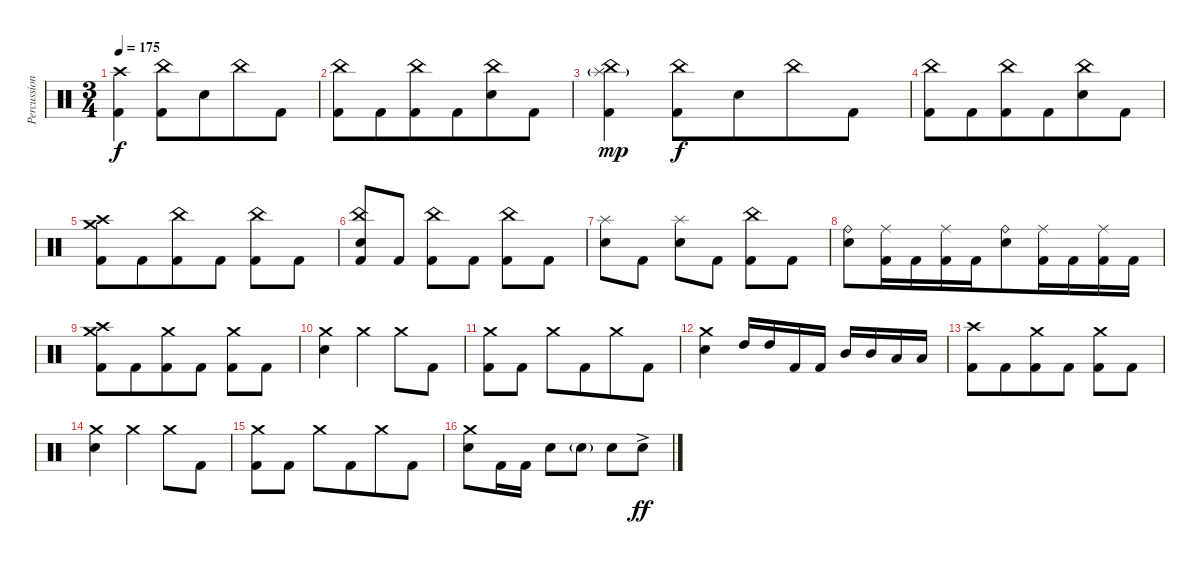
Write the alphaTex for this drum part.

\track ("Percussion" "Percussion") {instrument percussion bank 7}
\staff {score}
\articulation defaults
\ts (3 4)
\tempo 175
\clef neutral
\ks c
("Crash high (hit)" "Kick (hit) 2").4{dy f beam merge} ("China (hit)" "Kick (hit) 2").8 "Electric Snare (hit)".8{beam merge} "China (hit)".8{beam merge} "Kick (hit) 2".8 |
("China (hit)" "Kick (hit) 2").8 "Kick (hit) 2".8{beam merge} ("China (hit)" "Kick (hit) 2").8{beam merge} "Kick (hit) 2".8{beam merge} ("China (hit)" "Electric Snare (hit)").8{beam merge} "Kick (hit) 2".8 |
("China (hit)" "Splash (hit)"{g} "Kick (hit) 2").4{dy mp beam merge} ("China (hit)" "Kick (hit) 2").8{dy f} "Electric Snare (hit)".8{beam merge} "China (hit)".8{beam merge} "Kick (hit) 2".8 |
("China (hit)" "Kick (hit) 2").8 "Kick (hit) 2".8{beam merge} ("China (hit)" "Kick (hit) 2").8{beam merge} "Kick (hit) 2".8{beam merge} ("China (hit)" "Electric Snare (hit)").8{beam merge} "Kick (hit) 2".8 |
("Crash medium (hit)" "Crash high (hit)" "Kick (hit) 2").8 "Kick (hit) 2".8{beam merge} ("China (hit)" "Kick (hit) 2").8{beam merge} "Kick (hit) 2".8 ("China (hit)" "Kick (hit) 2").8 "Kick (hit) 2".8 |
("China (hit)" "Electric Snare (hit)" "Kick (hit) 2").8 "Kick (hit) 2".8 ("China (hit)" "Kick (hit) 2").8{beam merge} "Kick (hit) 2".8 ("China (hit)" "Kick (hit) 2").8 "Kick (hit) 2".8 |
("Splash (hit)" "Electric Snare (hit)").8 "Kick (hit) 2".8 ("Splash (hit)" "Electric Snare (hit)").8 "Kick (hit) 2".8 ("China (hit)" "Kick (hit) 2").8 "Kick (hit) 2".8 |
("Ride (bell)" "Electric Snare (hit)").8{beam merge} ("Ride (middle)" "Kick (hit) 2").16 "Kick (hit) 2".16{beam merge} ("Ride (middle)" "Kick (hit) 2").16{beam merge} "Kick (hit) 2".16 ("Ride (bell)" "Electric Snare (hit)").8{beam merge} ("Ride (middle)" "Kick (hit) 2").16 "Kick (hit) 2".16 ("Ride (middle)" "Kick (hit) 2").16 "Kick (hit) 2".16 |
("Crash medium (hit)" "Crash high (hit)" "Kick (hit) 2").8{beam merge} "Kick (hit) 2".8{beam merge} ("Crash medium (hit)" "Kick (hit) 2").8 "Kick (hit) 2".8 ("Crash medium (hit)" "Kick (hit) 2").8{beam merge} "Kick (hit) 2".8 |
("Crash medium (hit)" "Electric Snare (hit)").4 "Crash medium (hit)".4{beam merge} "Crash medium (hit)".8{beam merge} "Kick (hit) 2".8 |
("Crash medium (hit)" "Kick (hit) 2").8{beam merge} "Kick (hit) 2".8 "Crash medium (hit)".8 "Kick (hit) 2".8{beam merge} "Crash medium (hit)".8 "Kick (hit) 2".8 |
("Crash medium (hit)" "Electric Snare (hit)").4 "High Tom (hit)".16 "High Tom (hit)".16{beam merge} "Kick (hit) 2".16{beam merge} "Kick (hit) 2".16 "Mid Tom (hit)".16 "Mid Tom (hit)".16 "Low Tom (hit)".16{beam merge} "Low Tom (hit)".16 |
("Crash high (hit)" "Kick (hit) 2").8{beam merge} "Kick (hit) 2".8{beam merge} ("Crash medium (hit)" "Kick (hit) 2").8 "Kick (hit) 2".8 ("Crash medium (hit)" "Kick (hit) 2").8{beam merge} "Kick (hit) 2".8 |
("Crash medium (hit)" "Electric Snare (hit)").4 "Crash medium (hit)".4{beam merge} "Crash medium (hit)".8{beam merge} "Kick (hit) 2".8 |
("Crash medium (hit)" "Kick (hit) 2").8{beam merge} "Kick (hit) 2".8 "Crash medium (hit)".8 "Kick (hit) 2".8{beam merge} "Crash medium (hit)".8 "Kick (hit) 2".8 |
("Crash medium (hit)" "Electric Snare (hit)").8 "Kick (hit) 2".16 "Kick (hit) 2".16 "Electric Snare (hit)".8{beam merge} "Electric Snare (hit)"{g}.8 "Electric Snare (hit)".8{beam merge} "Electric Snare (hit)"{ac}.8{dy ff}
